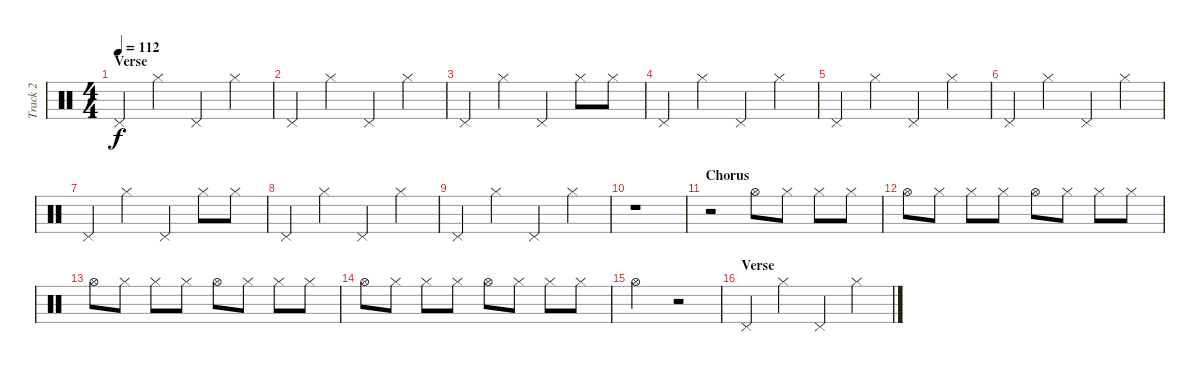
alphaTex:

\track ("Track 2" "Track 2") {instrument percussion}
\staff {score}
\articulation defaults
\ts (4 4)
\section ("" "Verse")
\tempo 112
\clef neutral
\ks c "Pedal Hi-Hat (hit)".4{dy f} "Hi-Hat (closed)".4 "Pedal Hi-Hat (hit)".4 "Hi-Hat (closed)".4
|
"Pedal Hi-Hat (hit)".4 "Hi-Hat (closed)".4 "Pedal Hi-Hat (hit)".4 "Hi-Hat (closed)".4 |
"Pedal Hi-Hat (hit)".4 "Hi-Hat (closed)".4 "Pedal Hi-Hat (hit)".4 "Hi-Hat (closed)".8 "Hi-Hat (closed)".8 |
"Pedal Hi-Hat (hit)".4 "Hi-Hat (closed)".4 "Pedal Hi-Hat (hit)".4 "Hi-Hat (closed)".4 |
"Pedal Hi-Hat (hit)".4 "Hi-Hat (closed)".4 "Pedal Hi-Hat (hit)".4 "Hi-Hat (closed)".4 |
"Pedal Hi-Hat (hit)".4 "Hi-Hat (closed)".4 "Pedal Hi-Hat (hit)".4 "Hi-Hat (closed)".4 |
"Pedal Hi-Hat (hit)".4 "Hi-Hat (closed)".4 "Pedal Hi-Hat (hit)".4 "Hi-Hat (closed)".8 "Hi-Hat (closed)".8 |
"Pedal Hi-Hat (hit)".4 "Hi-Hat (closed)".4 "Pedal Hi-Hat (hit)".4 "Hi-Hat (closed)".4 |
"Pedal Hi-Hat (hit)".4 "Hi-Hat (closed)".4 "Pedal Hi-Hat (hit)".4 "Hi-Hat (closed)".4 |
r.1 |
\section ("" "Chorus")
r.2 "Hi-Hat (open)".8 "Hi-Hat (closed)".8 "Hi-Hat (closed)".8 "Hi-Hat (closed)".8 |
"Hi-Hat (open)".8 "Hi-Hat (closed)".8 "Hi-Hat (closed)".8 "Hi-Hat (closed)".8 "Hi-Hat (open)".8 "Hi-Hat (closed)".8 "Hi-Hat (closed)".8 "Hi-Hat (closed)".8 |
"Hi-Hat (open)".8 "Hi-Hat (closed)".8 "Hi-Hat (closed)".8 "Hi-Hat (closed)".8 "Hi-Hat (open)".8 "Hi-Hat (closed)".8 "Hi-Hat (closed)".8 "Hi-Hat (closed)".8 |
"Hi-Hat (open)".8 "Hi-Hat (closed)".8 "Hi-Hat (closed)".8 "Hi-Hat (closed)".8 "Hi-Hat (open)".8 "Hi-Hat (closed)".8 "Hi-Hat (closed)".8 "Hi-Hat (closed)".8 |
"Hi-Hat (open)".2 r.2 |
\section ("" "Verse")
"Pedal Hi-Hat (hit)".4 "Hi-Hat (closed)".4 "Pedal Hi-Hat (hit)".4 "Hi-Hat (closed)".4
